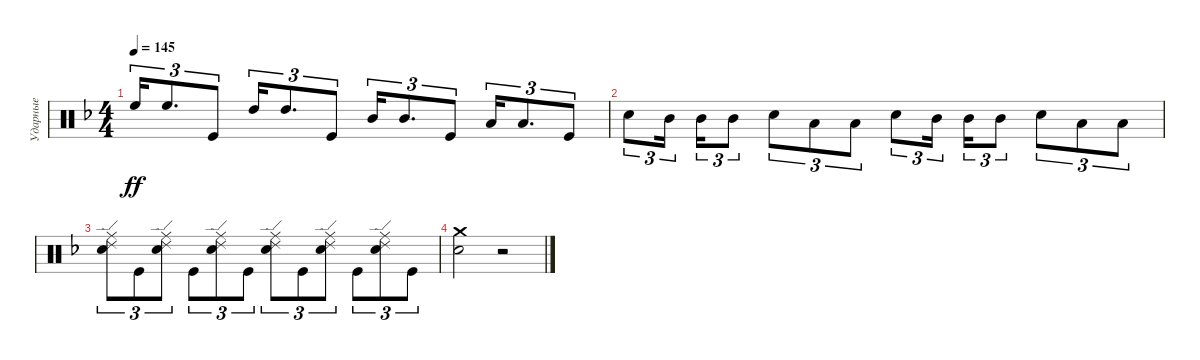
\track ("Ударные" "Ударные") {instrument percussion}
\staff {score}
\articulation defaults
\ts (4 4)
\tempo 145
\clef neutral
\ks dminor "High Floor Tom (hit)".16{tu (3 2) dy ff} "High Floor Tom (hit)".8{d tu (3 2)} "Kick (hit)".8{tu (3 2)} "High Tom (hit)".16{tu (3 2)} "High Tom (hit)".8{d tu (3 2)} "Kick (hit)".8{tu (3 2)} "Mid Tom (hit)".16{tu (3 2)} "Mid Tom (hit)".8{d tu (3 2)} "Kick (hit)".8{tu (3 2)} "Low Tom (hit)".16{tu (3 2)} "Low Tom (hit)".8{d tu (3 2)} "Kick (hit)".8{tu (3 2)}
|
"Electric Snare (hit)".8{tu (3 2)} "Mid Tom (hit)".16{tu (3 2) beam splitsecondary} "Mid Tom (hit)".16{tu (3 2)} "Mid Tom (hit)".8{tu (3 2)} "Electric Snare (hit)".8{tu (3 2)} "Low Tom (hit)".8{tu (3 2)} "Low Tom (hit)".8{tu (3 2)} "Electric Snare (hit)".8{tu (3 2)} "Mid Tom (hit)".16{tu (3 2) beam splitsecondary} "Mid Tom (hit)".16{tu (3 2)} "Mid Tom (hit)".8{tu (3 2)} "Electric Snare (hit)".8{tu (3 2)} "Low Tom (hit)".8{tu (3 2)} "Low Tom (hit)".8{tu (3 2)} |
("Ride (edge) 2" "Electric Snare (hit)" "Ride (middle)").8{tu (3 2)} "Kick (hit)".8{tu (3 2)} ("Ride (edge) 2" "Electric Snare (hit)" "Ride (middle)").8{tu (3 2)} "Kick (hit)".8{tu (3 2)} ("Ride (edge) 2" "Electric Snare (hit)" "Ride (middle)").8{tu (3 2)} "Kick (hit)".8{tu (3 2)} ("Ride (edge) 2" "Electric Snare (hit)" "Ride (middle)").8{tu (3 2)} "Kick (hit)".8{tu (3 2)} ("Ride (edge) 2" "Electric Snare (hit)" "Ride (middle)").8{tu (3 2)} "Kick (hit)".8{tu (3 2)} ("Ride (edge) 2" "Electric Snare (hit)" "Ride (middle)").8{tu (3 2)} "Kick (hit)".8{tu (3 2)} |
("Crash medium (hit)" "Electric Snare (hit)").2 r.2
